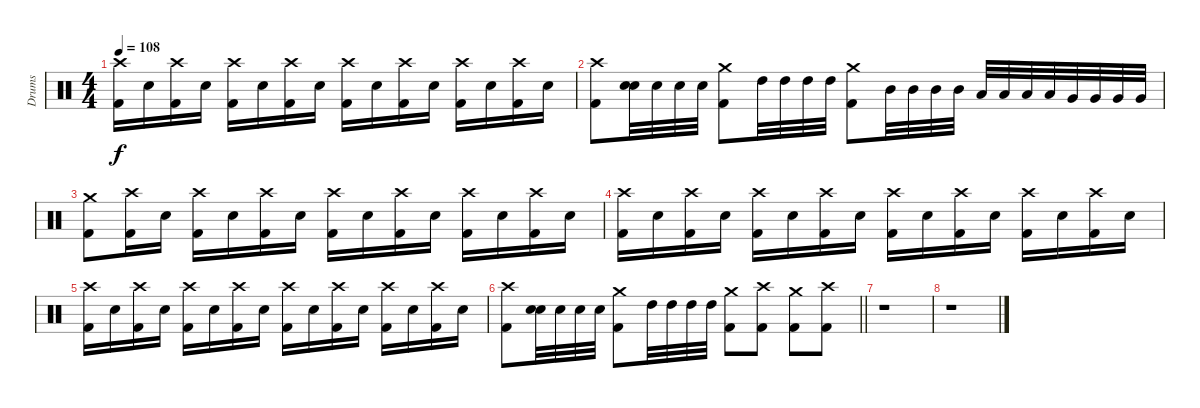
\track ("Drums" "Drums") {instrument percussion}
\staff {score}
\articulation defaults
\ts (4 4)
\tempo 108
\clef neutral
\ks c
("Crash high (hit)" "Kick (hit) 2").16{dy f} "Electric Snare (hit)".16 ("Crash high (hit)" "Kick (hit) 2").16 "Electric Snare (hit)".16 ("Crash high (hit)" "Kick (hit) 2").16 "Electric Snare (hit)".16 ("Crash high (hit)" "Kick (hit) 2").16 "Electric Snare (hit)".16 ("Crash high (hit)" "Kick (hit) 2").16 "Electric Snare (hit)".16 ("Crash high (hit)" "Kick (hit) 2").16 "Electric Snare (hit)".16 ("Crash high (hit)" "Kick (hit) 2").16 "Electric Snare (hit)".16 ("Crash high (hit)" "Kick (hit) 2").16 "Electric Snare (hit)".16 |
("Crash high (hit)" "Kick (hit) 2").8 ("Electric Snare (hit)" "Electric Snare (hit)").32{bu 60} "Electric Snare (hit)".32 "Electric Snare (hit)".32 "Electric Snare (hit)".32 ("Crash medium (hit)" "Kick (hit) 2").8 "High Tom (hit)".32 "High Tom (hit)".32 "High Tom (hit)".32 "High Tom (hit)".32 ("Crash medium (hit)" "Kick (hit) 2").8 "Mid Tom (hit)".32 "Mid Tom (hit)".32 "Mid Tom (hit)".32 "Mid Tom (hit)".32 "Low Tom (hit)".32 "Low Tom (hit)".32 "Low Tom (hit)".32 "Low Tom (hit)".32 "Very Low Tom (hit)".32 "Very Low Tom (hit)".32 "Very Low Tom (hit)".32 "Very Low Tom (hit)".32 |
("Crash medium (hit)" "Kick (hit) 2").8 ("Crash high (hit)" "Kick (hit) 2").16 "Electric Snare (hit)".16 ("Crash high (hit)" "Kick (hit) 2").16 "Electric Snare (hit)".16 ("Crash high (hit)" "Kick (hit) 2").16 "Electric Snare (hit)".16 ("Crash high (hit)" "Kick (hit) 2").16 "Electric Snare (hit)".16 ("Crash high (hit)" "Kick (hit) 2").16 "Electric Snare (hit)".16 ("Crash high (hit)" "Kick (hit) 2").16 "Electric Snare (hit)".16 ("Crash high (hit)" "Kick (hit) 2").16 "Electric Snare (hit)".16 |
("Crash high (hit)" "Kick (hit) 2").16 "Electric Snare (hit)".16 ("Crash high (hit)" "Kick (hit) 2").16 "Electric Snare (hit)".16 ("Crash high (hit)" "Kick (hit) 2").16 "Electric Snare (hit)".16 ("Crash high (hit)" "Kick (hit) 2").16 "Electric Snare (hit)".16 ("Crash high (hit)" "Kick (hit) 2").16 "Electric Snare (hit)".16 ("Crash high (hit)" "Kick (hit) 2").16 "Electric Snare (hit)".16 ("Crash high (hit)" "Kick (hit) 2").16 "Electric Snare (hit)".16 ("Crash high (hit)" "Kick (hit) 2").16 "Electric Snare (hit)".16 |
("Crash high (hit)" "Kick (hit) 2").16 "Electric Snare (hit)".16 ("Crash high (hit)" "Kick (hit) 2").16 "Electric Snare (hit)".16 ("Crash high (hit)" "Kick (hit) 2").16 "Electric Snare (hit)".16 ("Crash high (hit)" "Kick (hit) 2").16 "Electric Snare (hit)".16 ("Crash high (hit)" "Kick (hit) 2").16 "Electric Snare (hit)".16 ("Crash high (hit)" "Kick (hit) 2").16 "Electric Snare (hit)".16 ("Crash high (hit)" "Kick (hit) 2").16 "Electric Snare (hit)".16 ("Crash high (hit)" "Kick (hit) 2").16 "Electric Snare (hit)".16 |
\barLineRight lightlight
("Crash high (hit)" "Kick (hit) 2").8 ("Electric Snare (hit)" "Electric Snare (hit)").32{bu 60} "Electric Snare (hit)".32 "Electric Snare (hit)".32 "Electric Snare (hit)".32 ("Crash medium (hit)" "Kick (hit) 2").8 "High Tom (hit)".32 "High Tom (hit)".32 "High Tom (hit)".32 "High Tom (hit)".32 ("Crash medium (hit)" "Kick (hit) 2").8 ("Crash high (hit)" "Kick (hit) 2").8 ("Crash medium (hit)" "Kick (hit) 2").8 ("Crash high (hit)" "Kick (hit) 2").8 |
r.1 |
r.1
